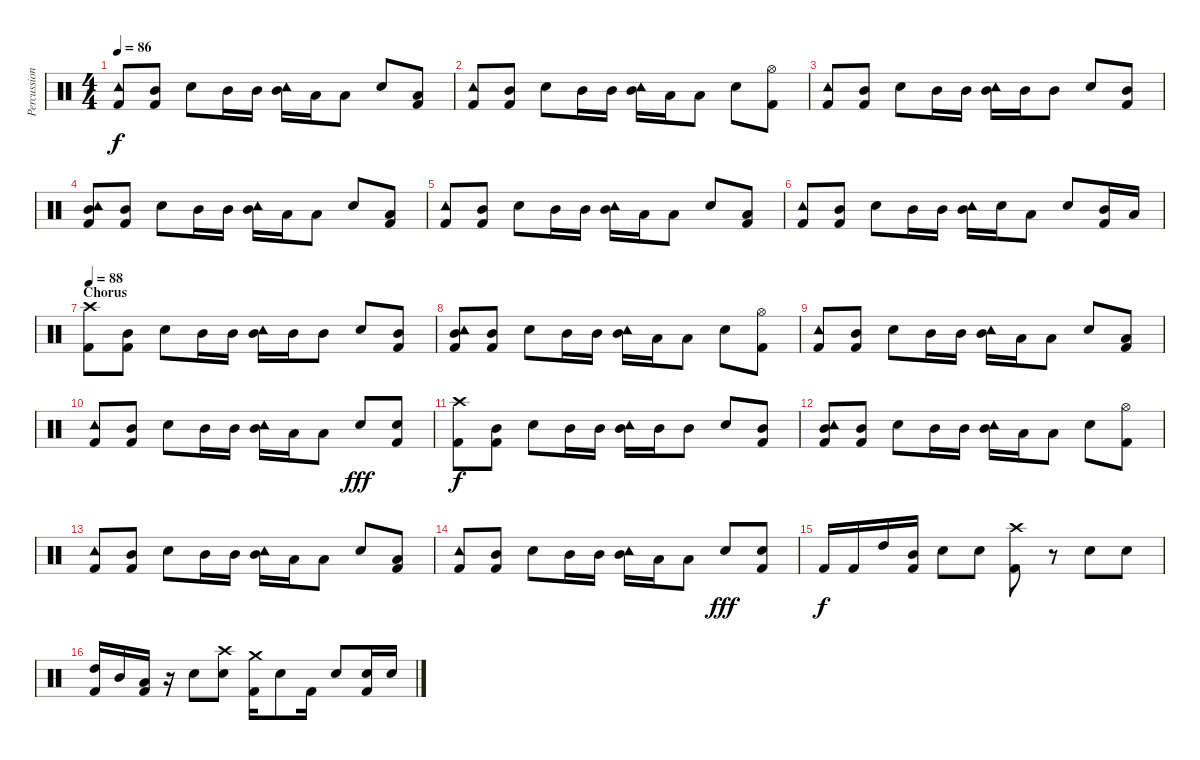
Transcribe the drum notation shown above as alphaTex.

\track ("Percussion" "Percussion") {instrument percussion}
\staff {score}
\articulation defaults
\ts (4 4)
\tempo 86
\clef neutral
\ks c
("Tambourine (hit)" "Kick (hit) 2").8{dy f} ("Mid Tom (hit)" "Kick (hit) 2").8 "Snare (hit) 2".8 "Mid Tom (hit)".16 "Mid Tom (hit)".16 ("Tambourine (hit)" "Mid Tom (hit)").16 "Low Tom (hit)".16 "Low Tom (hit)".8 "Snare (hit) 2".8 ("Low Tom (hit)" "Kick (hit) 2").8 |
("Tambourine (hit)" "Kick (hit) 2").8 ("Mid Tom (hit)" "Kick (hit) 2").8 "Snare (hit) 2".8 "Mid Tom (hit)".16 "Mid Tom (hit)".16 ("Tambourine (hit)" "Mid Tom (hit)").16 "Low Tom (hit)".16 "Low Tom (hit)".8 "Snare (hit) 2".8 ("Hi-Hat (open)" "Kick (hit) 2").8 |
("Tambourine (hit)" "Kick (hit) 2").8 ("Mid Tom (hit)" "Kick (hit) 2").8 "Snare (hit) 2".8 "Mid Tom (hit)".16 "Mid Tom (hit)".16 ("Tambourine (hit)" "Mid Tom (hit)").16 "Mid Tom (hit)".16 "Mid Tom (hit)".8 "Snare (hit) 2".8 ("Mid Tom (hit)" "Kick (hit) 2").8 |
("Tambourine (hit)" "Mid Tom (hit)" "Kick (hit) 2").8 ("Mid Tom (hit)" "Kick (hit) 2").8 "Snare (hit) 2".8 "Mid Tom (hit)".16 "Mid Tom (hit)".16 ("Tambourine (hit)" "Mid Tom (hit)").16 "Low Tom (hit)".16 "Low Tom (hit)".8 "Snare (hit) 2".8 ("Low Tom (hit)" "Kick (hit) 2").8 |
("Tambourine (hit)" "Kick (hit) 2").8 ("Mid Tom (hit)" "Kick (hit) 2").8 "Electric Snare (hit)".8 "Mid Tom (hit)".16 "Mid Tom (hit)".16 ("Tambourine (hit)" "Mid Tom (hit)").16 "Low Tom (hit)".16 "Low Tom (hit)".8 "Electric Snare (hit)".8 ("Low Tom (hit)" "Kick (hit) 2").8 |
("Tambourine (hit)" "Kick (hit) 2").8 ("Mid Tom (hit)" "Kick (hit) 2").8 "Electric Snare (hit)".8 "Mid Tom (hit)".16 "Mid Tom (hit)".16 ("Tambourine (hit)" "Mid Tom (hit)").16 "Electric Snare (hit)".16 "Low Tom (hit)".8 "Electric Snare (hit)".8 ("Mid Tom (hit)" "Kick (hit) 2").16 "Low Tom (hit)".16 |
\section ("" "Chorus")
\tempo 88
("Crash high (hit)" "Kick (hit) 2").8 ("Mid Tom (hit)" "Kick (hit) 2").8 "Snare (hit) 2".8 "Mid Tom (hit)".16 "Mid Tom (hit)".16 ("Tambourine (hit)" "Mid Tom (hit)").16 "Mid Tom (hit)".16 "Mid Tom (hit)".8 "Snare (hit) 2".8 ("Mid Tom (hit)" "Kick (hit) 2").8 |
("Tambourine (hit)" "Mid Tom (hit)" "Kick (hit) 2").8 ("Mid Tom (hit)" "Kick (hit) 2").8 "Snare (hit) 2".8 "Mid Tom (hit)".16 "Mid Tom (hit)".16 ("Tambourine (hit)" "Mid Tom (hit)").16 "Low Tom (hit)".16 "Low Tom (hit)".8 "Snare (hit) 2".8 ("Hi-Hat (open)" "Kick (hit) 2").8 |
("Tambourine (hit)" "Kick (hit) 2").8 ("Mid Tom (hit)" "Kick (hit) 2").8 "Snare (hit) 2".8 "Mid Tom (hit)".16 "Mid Tom (hit)".16 ("Tambourine (hit)" "Mid Tom (hit)").16 "Low Tom (hit)".16 "Low Tom (hit)".8 "Snare (hit) 2".8 ("Low Tom (hit)" "Kick (hit) 2").8 |
("Tambourine (hit)" "Kick (hit) 2").8 ("Mid Tom (hit)" "Kick (hit) 2").8 "Snare (hit) 2".8 "Mid Tom (hit)".16 "Mid Tom (hit)".16 ("Tambourine (hit)" "Mid Tom (hit)").16 "Low Tom (hit)".16 "Low Tom (hit)".8 "Snare (hit) 2".8{dy fff} ("Snare (hit) 2" "Kick (hit) 2").8 |
("Crash high (hit)" "Kick (hit) 2").8{dy f} ("Mid Tom (hit)" "Kick (hit) 2").8 "Snare (hit) 2".8 "Mid Tom (hit)".16 "Mid Tom (hit)".16 ("Tambourine (hit)" "Mid Tom (hit)").16 "Mid Tom (hit)".16 "Mid Tom (hit)".8 "Snare (hit) 2".8 ("Mid Tom (hit)" "Kick (hit) 2").8 |
("Tambourine (hit)" "Mid Tom (hit)" "Kick (hit) 2").8 ("Mid Tom (hit)" "Kick (hit) 2").8 "Snare (hit) 2".8 "Mid Tom (hit)".16 "Mid Tom (hit)".16 ("Tambourine (hit)" "Mid Tom (hit)").16 "Low Tom (hit)".16 "Low Tom (hit)".8 "Snare (hit) 2".8 ("Hi-Hat (open)" "Kick (hit) 2").8 |
("Tambourine (hit)" "Kick (hit) 2").8 ("Mid Tom (hit)" "Kick (hit) 2").8 "Snare (hit) 2".8 "Mid Tom (hit)".16 "Mid Tom (hit)".16 ("Tambourine (hit)" "Mid Tom (hit)").16 "Low Tom (hit)".16 "Low Tom (hit)".8 "Snare (hit) 2".8 ("Low Tom (hit)" "Kick (hit) 2").8 |
("Tambourine (hit)" "Kick (hit) 2").8 ("Mid Tom (hit)" "Kick (hit) 2").8 "Snare (hit) 2".8 "Mid Tom (hit)".16 "Mid Tom (hit)".16 ("Tambourine (hit)" "Mid Tom (hit)").16 "Low Tom (hit)".16 "Low Tom (hit)".8 "Snare (hit) 2".8{dy fff} ("Snare (hit) 2" "Kick (hit) 2").8 |
"Kick (hit) 2".16{dy f} "Kick (hit) 2".16 "High Tom (hit)".16 ("Mid Tom (hit)" "Kick (hit) 2").16 "Snare (hit) 2".8 "Snare (hit) 2".8 ("Crash high (hit)" "Kick (hit) 2").8 r.8 "Snare (hit) 2".8 "Snare (hit) 2".8 |
("High Tom (hit)" "Kick (hit) 2").16 "Mid Tom (hit)".16 ("Low Tom (hit)" "Kick (hit) 2").16 r.16 "Snare (hit) 2".8 ("Crash high (hit)" "Snare (hit) 2").8 ("Crash medium (hit)" "Kick (hit) 2").16 "Snare (hit) 2".8 "Kick (hit) 2".16 "Snare (hit) 2".8 ("Snare (hit) 2" "Kick (hit) 2").16 "Snare (hit) 2".16
